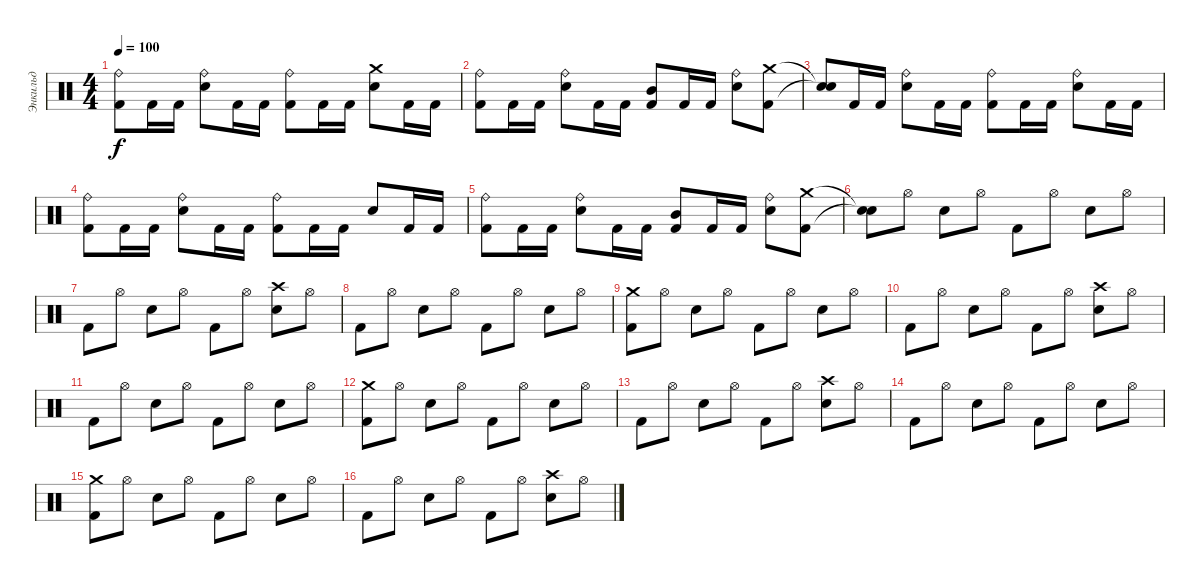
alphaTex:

\track ("Энкильд" "Энкильд") {instrument percussion}
\staff {score}
\articulation defaults
\ts (4 4)
\tempo 100
\clef neutral
\ks c
("Ride (bell)" "Kick (hit) 2").8{dy f} "Kick (hit) 2".16 "Kick (hit) 2".16 ("Snare (hit) 2" "Ride (bell)").8 "Kick (hit) 2".16 "Kick (hit) 2".16 ("Kick (hit) 2" "Ride (bell)").8 "Kick (hit) 2".16 "Kick (hit) 2".16 ("Snare (hit) 2" "Crash medium (hit)").8 "Kick (hit) 2".16 "Kick (hit) 2".16 |
("Ride (bell)" "Kick (hit) 2").8 "Kick (hit) 2".16 "Kick (hit) 2".16 ("Ride (bell)" "Snare (hit) 2").8 "Kick (hit) 2".16 "Kick (hit) 2".16 ("Mid Tom (hit)" "Kick (hit) 2").8 "Kick (hit) 2".16 "Kick (hit) 2".16 ("Ride (bell)" "Snare (hit) 2").8 ("Crash medium (hit)" "Kick (hit) 2").8 |
("Snare (hit)"{t} "Snare (hit)"{t}).8 "Kick (hit) 2".16 "Kick (hit) 2".16 ("Snare (hit) 2" "Ride (bell)").8 "Kick (hit) 2".16 "Kick (hit) 2".16 ("Kick (hit) 2" "Ride (bell)").8 "Kick (hit) 2".16 "Kick (hit) 2".16 ("Snare (hit) 2" "Ride (bell)").8 "Kick (hit) 2".16 "Kick (hit) 2".16 |
("Ride (bell)" "Kick (hit) 2").8 "Kick (hit) 2".16 "Kick (hit) 2".16 ("Snare (hit) 2" "Ride (bell)").8 "Kick (hit) 2".16 "Kick (hit) 2".16 ("Kick (hit) 2" "Ride (bell)").8 "Kick (hit) 2".16 "Kick (hit) 2".16 "Snare (hit) 2".8 "Kick (hit) 2".16 "Kick (hit) 2".16 |
("Ride (bell)" "Kick (hit) 2").8 "Kick (hit) 2".16 "Kick (hit) 2".16 ("Ride (bell)" "Snare (hit) 2").8 "Kick (hit) 2".16 "Kick (hit) 2".16 ("Mid Tom (hit)" "Kick (hit) 2").8 "Kick (hit) 2".16 "Kick (hit) 2".16 ("Ride (bell)" "Snare (hit) 2").8 ("Crash medium (hit)" "Kick (hit) 2").8 |
("Snare (hit)"{t} "Snare (hit)"{t}).8 "Hi-Hat (open)".8 "Snare (hit) 2".8 "Hi-Hat (open)".8 "Kick (hit) 2".8 "Hi-Hat (open)".8 "Snare (hit) 2".8 "Hi-Hat (open)".8 |
"Kick (hit) 2".8 "Hi-Hat (open)".8 "Snare (hit) 2".8 "Hi-Hat (open)".8 "Kick (hit) 2".8 "Hi-Hat (open)".8 ("Crash high (hit)" "Snare (hit) 2").8 "Hi-Hat (open)".8 |
"Kick (hit) 2".8 "Hi-Hat (open)".8 "Snare (hit) 2".8 "Hi-Hat (open)".8 "Kick (hit) 2".8 "Hi-Hat (open)".8 "Snare (hit) 2".8 "Hi-Hat (open)".8 |
("Crash medium (hit)" "Kick (hit) 2").8 "Hi-Hat (open)".8 "Snare (hit) 2".8 "Hi-Hat (open)".8 "Kick (hit) 2".8 "Hi-Hat (open)".8 "Snare (hit) 2".8 "Hi-Hat (open)".8 |
"Kick (hit) 2".8 "Hi-Hat (open)".8 "Snare (hit) 2".8 "Hi-Hat (open)".8 "Kick (hit) 2".8 "Hi-Hat (open)".8 ("Crash high (hit)" "Snare (hit) 2").8 "Hi-Hat (open)".8 |
"Kick (hit) 2".8 "Hi-Hat (open)".8 "Snare (hit) 2".8 "Hi-Hat (open)".8 "Kick (hit) 2".8 "Hi-Hat (open)".8 "Snare (hit) 2".8 "Hi-Hat (open)".8 |
("Crash medium (hit)" "Kick (hit) 2").8 "Hi-Hat (open)".8 "Snare (hit) 2".8 "Hi-Hat (open)".8 "Kick (hit) 2".8 "Hi-Hat (open)".8 "Snare (hit) 2".8 "Hi-Hat (open)".8 |
"Kick (hit) 2".8 "Hi-Hat (open)".8 "Snare (hit) 2".8 "Hi-Hat (open)".8 "Kick (hit) 2".8 "Hi-Hat (open)".8 ("Crash high (hit)" "Snare (hit) 2").8 "Hi-Hat (open)".8 |
"Kick (hit) 2".8 "Hi-Hat (open)".8 "Snare (hit) 2".8 "Hi-Hat (open)".8 "Kick (hit) 2".8 "Hi-Hat (open)".8 "Snare (hit) 2".8 "Hi-Hat (open)".8 |
("Crash medium (hit)" "Kick (hit) 2").8 "Hi-Hat (open)".8 "Snare (hit) 2".8 "Hi-Hat (open)".8 "Kick (hit) 2".8 "Hi-Hat (open)".8 "Snare (hit) 2".8 "Hi-Hat (open)".8 |
"Kick (hit) 2".8 "Hi-Hat (open)".8 "Snare (hit) 2".8 "Hi-Hat (open)".8 "Kick (hit) 2".8 "Hi-Hat (open)".8 ("Crash high (hit)" "Snare (hit) 2").8 "Hi-Hat (open)".8
